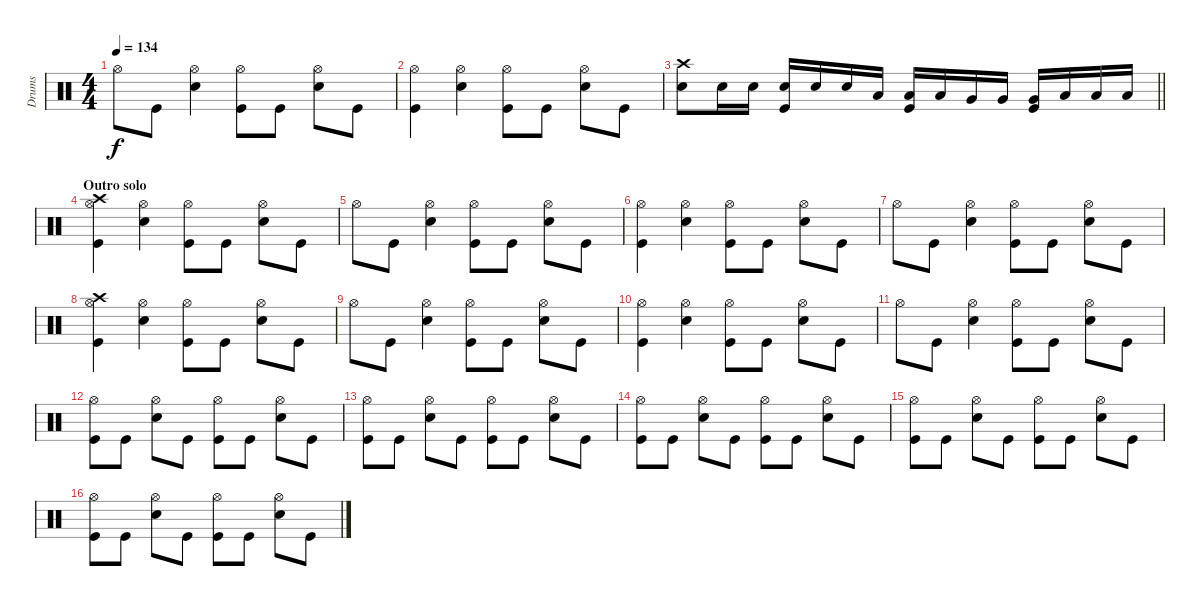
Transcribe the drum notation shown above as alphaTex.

\track ("Drums" "Drums") {instrument percussion}
\staff {score}
\articulation defaults
\ts (4 4)
\tempo 134
\clef neutral
\ks c "Hi-Hat (open)".8{dy f} "Kick (hit)".8
("Hi-Hat (open)" "Snare (hit) 2").4 ("Hi-Hat (open)" "Kick (hit)").8 "Kick (hit)".8 ("Hi-Hat (open)" "Snare (hit) 2").8 "Kick (hit)".8 |
("Hi-Hat (open)" "Kick (hit)").4 ("Hi-Hat (open)" "Snare (hit) 2").4 ("Hi-Hat (open)" "Kick (hit)").8 "Kick (hit)".8 ("Hi-Hat (open)" "Snare (hit) 2").8 "Kick (hit)".8 |
\barLineRight lightlight
("Crash high (hit)" "Snare (hit) 2").8 "Electric Snare (hit)".16 "Electric Snare (hit)".16 ("Electric Snare (hit)" "Kick (hit)").16 "Electric Snare (hit)".16 "Electric Snare (hit)".16 "Low Tom (hit)".16 ("Low Tom (hit)" "Kick (hit)").16 "Low Tom (hit)".16 "Very Low Tom (hit)".16 "Very Low Tom (hit)".16 ("Very Low Tom (hit)" "Kick (hit)").16 "Low Floor Tom (hit)".16 "Low Floor Tom (hit)".16 "Low Floor Tom (hit)".16 |
\section ("" "Outro solo")
("Crash high (hit)" "Hi-Hat (open)" "Kick (hit)").4 ("Hi-Hat (open)" "Snare (hit) 2").4 ("Hi-Hat (open)" "Kick (hit)").8 "Kick (hit)".8 ("Hi-Hat (open)" "Snare (hit) 2").8 "Kick (hit)".8 |
"Hi-Hat (open)".8 "Kick (hit)".8 ("Hi-Hat (open)" "Snare (hit) 2").4 ("Hi-Hat (open)" "Kick (hit)").8 "Kick (hit)".8 ("Hi-Hat (open)" "Snare (hit) 2").8 "Kick (hit)".8 |
("Hi-Hat (open)" "Kick (hit)").4 ("Hi-Hat (open)" "Snare (hit) 2").4 ("Hi-Hat (open)" "Kick (hit)").8 "Kick (hit)".8 ("Hi-Hat (open)" "Snare (hit) 2").8 "Kick (hit)".8 |
"Hi-Hat (open)".8 "Kick (hit)".8 ("Hi-Hat (open)" "Snare (hit) 2").4 ("Hi-Hat (open)" "Kick (hit)").8 "Kick (hit)".8 ("Hi-Hat (open)" "Snare (hit) 2").8 "Kick (hit)".8 |
("Crash high (hit)" "Hi-Hat (open)" "Kick (hit)").4 ("Hi-Hat (open)" "Snare (hit) 2").4 ("Hi-Hat (open)" "Kick (hit)").8 "Kick (hit)".8 ("Hi-Hat (open)" "Snare (hit) 2").8 "Kick (hit)".8 |
"Hi-Hat (open)".8 "Kick (hit)".8 ("Hi-Hat (open)" "Snare (hit) 2").4 ("Hi-Hat (open)" "Kick (hit)").8 "Kick (hit)".8 ("Hi-Hat (open)" "Snare (hit) 2").8 "Kick (hit)".8 |
("Hi-Hat (open)" "Kick (hit)").4 ("Hi-Hat (open)" "Snare (hit) 2").4 ("Hi-Hat (open)" "Kick (hit)").8 "Kick (hit)".8 ("Hi-Hat (open)" "Snare (hit) 2").8 "Kick (hit)".8 |
"Hi-Hat (open)".8 "Kick (hit)".8 ("Hi-Hat (open)" "Snare (hit) 2").4 ("Hi-Hat (open)" "Kick (hit)").8 "Kick (hit)".8 ("Hi-Hat (open)" "Snare (hit) 2").8 "Kick (hit)".8 |
("Hi-Hat (open)" "Kick (hit)").8 "Kick (hit)".8 ("Hi-Hat (open)" "Snare (hit) 2").8 "Kick (hit)".8 ("Hi-Hat (open)" "Kick (hit)").8 "Kick (hit)".8 ("Hi-Hat (open)" "Snare (hit) 2").8 "Kick (hit)".8 |
("Hi-Hat (open)" "Kick (hit)").8 "Kick (hit)".8 ("Hi-Hat (open)" "Snare (hit) 2").8 "Kick (hit)".8 ("Hi-Hat (open)" "Kick (hit)").8 "Kick (hit)".8 ("Hi-Hat (open)" "Snare (hit) 2").8 "Kick (hit)".8 |
("Hi-Hat (open)" "Kick (hit)").8 "Kick (hit)".8 ("Hi-Hat (open)" "Snare (hit) 2").8 "Kick (hit)".8 ("Hi-Hat (open)" "Kick (hit)").8 "Kick (hit)".8 ("Hi-Hat (open)" "Snare (hit) 2").8 "Kick (hit)".8 |
("Hi-Hat (open)" "Kick (hit)").8 "Kick (hit)".8 ("Hi-Hat (open)" "Snare (hit) 2").8 "Kick (hit)".8 ("Hi-Hat (open)" "Kick (hit)").8 "Kick (hit)".8 ("Hi-Hat (open)" "Snare (hit) 2").8 "Kick (hit)".8 |
("Hi-Hat (open)" "Kick (hit)").8 "Kick (hit)".8 ("Hi-Hat (open)" "Snare (hit) 2").8 "Kick (hit)".8 ("Hi-Hat (open)" "Kick (hit)").8 "Kick (hit)".8 ("Hi-Hat (open)" "Snare (hit) 2").8 "Kick (hit)".8
